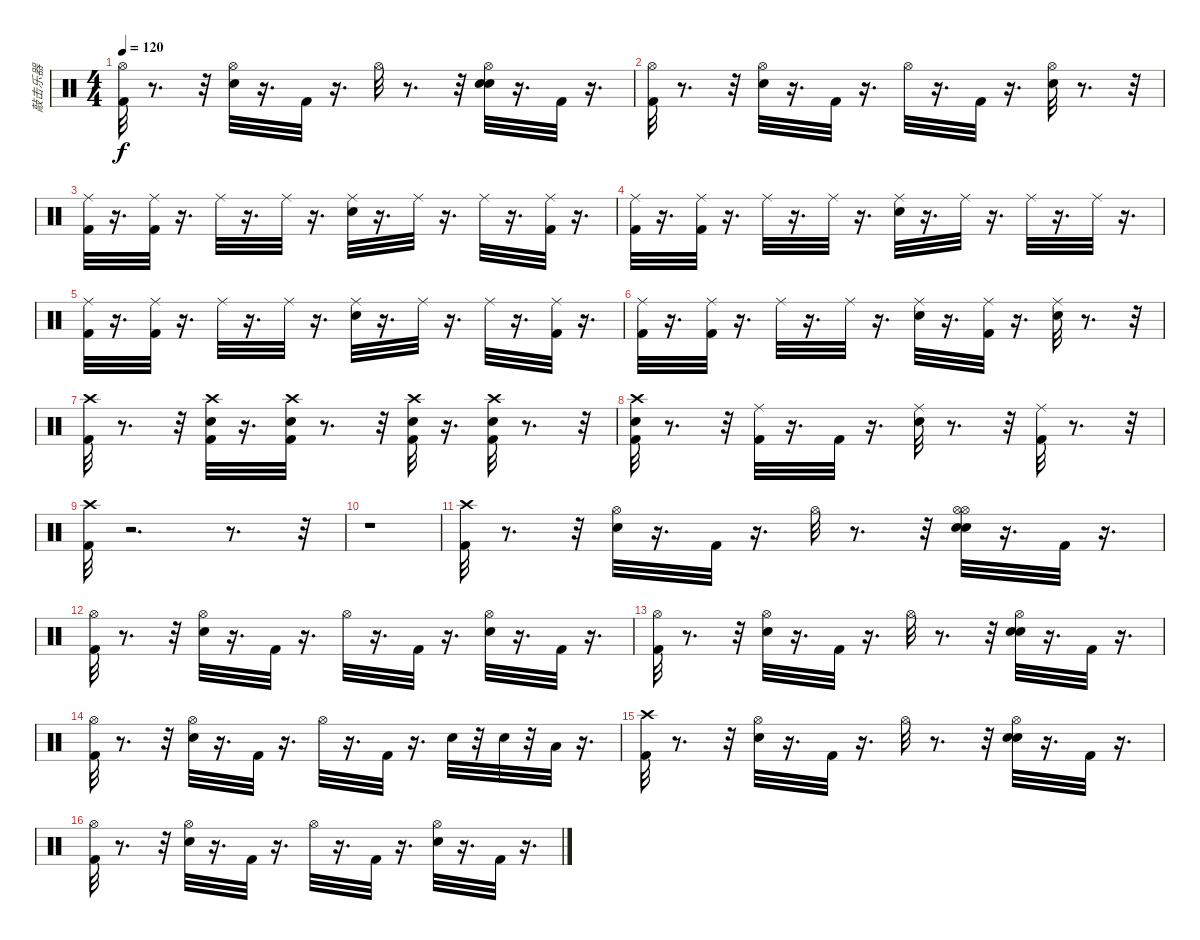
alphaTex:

\track ("敲击乐器" "敲击乐器") {instrument percussion}
\staff {score}
\articulation defaults
\ts (4 4)
\tempo 120
\clef neutral
\ks c
("Hi-Hat (open)" "Kick (hit) 2").32{dy f} r.8{d} r.32 ("Snare (hit) 2" "Hi-Hat (open)").32 r.16{d} "Kick (hit) 2".32 r.16{d} "Hi-Hat (open)".32 r.8{d} r.32 ("Snare (hit) 2" "Snare (hit) 2" "Hi-Hat (open)").32 r.16{d} "Kick (hit) 2".32 r.16{d} |
("Hi-Hat (open)" "Kick (hit) 2").32 r.8{d} r.32 ("Snare (hit) 2" "Hi-Hat (open)").32 r.16{d} "Kick (hit) 2".32 r.16{d} "Hi-Hat (open)".32 r.16{d} "Kick (hit) 2".32 r.16{d} ("Snare (hit) 2" "Hi-Hat (open)").32 r.8{d} r.32 |
("Ride (middle)" "Kick (hit) 2").32 r.16{d} ("Kick (hit) 2" "Ride (middle)").32 r.16{d} "Ride (middle)".32 r.16{d} "Ride (middle)".32 r.16{d} ("Ride (middle)" "Snare (hit) 2").32 r.16{d} "Ride (middle)".32 r.16{d} "Ride (middle)".32 r.16{d} ("Ride (middle)" "Kick (hit) 2").32 r.16{d} |
("Kick (hit) 2" "Ride (middle)").32 r.16{d} ("Kick (hit) 2" "Ride (middle)").32 r.16{d} "Ride (middle)".32 r.16{d} "Ride (middle)".32 r.16{d} ("Ride (middle)" "Snare (hit) 2").32 r.16{d} "Ride (middle)".32 r.16{d} "Ride (middle)".32 r.16{d} "Ride (middle)".32 r.16{d} |
("Ride (middle)" "Kick (hit) 2").32 r.16{d} ("Kick (hit) 2" "Ride (middle)").32 r.16{d} "Ride (middle)".32 r.16{d} "Ride (middle)".32 r.16{d} ("Ride (middle)" "Snare (hit) 2").32 r.16{d} "Ride (middle)".32 r.16{d} "Ride (middle)".32 r.16{d} ("Kick (hit) 2" "Ride (middle)").32 r.16{d} |
("Ride (middle)" "Kick (hit) 2").32 r.16{d} ("Kick (hit) 2" "Ride (middle)").32 r.16{d} "Ride (middle)".32 r.16{d} "Ride (middle)".32 r.16{d} ("Ride (middle)" "Snare (hit) 2").32 r.16{d} ("Ride (middle)" "Kick (hit) 2").32 r.16{d} ("Ride (middle)" "Snare (hit) 2").32 r.8{d} r.32 |
("Kick (hit) 2" "Crash high (hit)").32 r.8{d} r.32 ("Kick (hit) 2" "Crash high (hit)" "Snare (hit) 2").32 r.16{d} ("Snare (hit) 2" "Kick (hit) 2" "Crash high (hit)").32 r.8{d} r.32 ("Crash high (hit)" "Kick (hit) 2" "Snare (hit) 2").32 r.16{d} ("Snare (hit) 2" "Crash high (hit)" "Kick (hit) 2").32 r.8{d} r.32 |
("Kick (hit) 2" "Snare (hit) 2" "Crash high (hit)").32 r.8{d} r.32 ("Kick (hit) 2" "Ride (middle)").32 r.16{d} "Kick (hit) 2".32 r.16{d} ("Snare (hit) 2" "Ride (middle)").32 r.8{d} r.32 ("Ride (middle)" "Kick (hit) 2").32 r.8{d} r.32 |
("Kick (hit) 2" "Crash high (hit)").32 r.2{d} r.8{d} r.32 |
r.1 |
("Kick (hit) 2" "Crash high (hit)").32 r.8{d} r.32 ("Snare (hit) 2" "Hi-Hat (open)").32 r.16{d} "Kick (hit) 2".32 r.16{d} "Hi-Hat (open)".32 r.8{d} r.32 ("Snare (hit) 2" "Hi-Hat (open)" "Snare (hit) 2" "Hi-Hat (open)").32 r.16{d} "Kick (hit) 2".32 r.16{d} |
("Kick (hit) 2" "Hi-Hat (open)").32 r.8{d} r.32 ("Snare (hit) 2" "Hi-Hat (open)").32 r.16{d} "Kick (hit) 2".32 r.16{d} "Hi-Hat (open)".32 r.16{d} "Kick (hit) 2".32 r.16{d} ("Snare (hit) 2" "Hi-Hat (open)").32 r.16{d} "Kick (hit) 2".32 r.16{d} |
("Hi-Hat (open)" "Kick (hit) 2").32 r.8{d} r.32 ("Snare (hit) 2" "Hi-Hat (open)").32 r.16{d} "Kick (hit) 2".32 r.16{d} "Hi-Hat (open)".32 r.8{d} r.32 ("Snare (hit) 2" "Hi-Hat (open)" "Snare (hit) 2").32 r.16{d} "Kick (hit) 2".32 r.16{d} |
("Kick (hit) 2" "Hi-Hat (open)").32 r.8{d} r.32 ("Snare (hit) 2" "Hi-Hat (open)").32 r.16{d} "Kick (hit) 2".32 r.16{d} "Hi-Hat (open)".32 r.16{d} "Kick (hit) 2".32 r.16{d} "Snare (hit) 2".32 r.32 "Snare (hit) 2".32 r.32 "Low Floor Tom (hit)".32 r.16{d} |
("Kick (hit) 2" "Crash high (hit)").32 r.8{d} r.32 ("Snare (hit) 2" "Hi-Hat (open)").32 r.16{d} "Kick (hit) 2".32 r.16{d} "Hi-Hat (open)".32 r.8{d} r.32 ("Snare (hit) 2" "Hi-Hat (open)" "Snare (hit) 2").32 r.16{d} "Kick (hit) 2".32 r.16{d} |
("Kick (hit) 2" "Hi-Hat (open)").32 r.8{d} r.32 ("Snare (hit) 2" "Hi-Hat (open)").32 r.16{d} "Kick (hit) 2".32 r.16{d} "Hi-Hat (open)".32 r.16{d} "Kick (hit) 2".32 r.16{d} ("Hi-Hat (open)" "Snare (hit) 2").32 r.16{d} "Kick (hit) 2".32 r.16{d}
